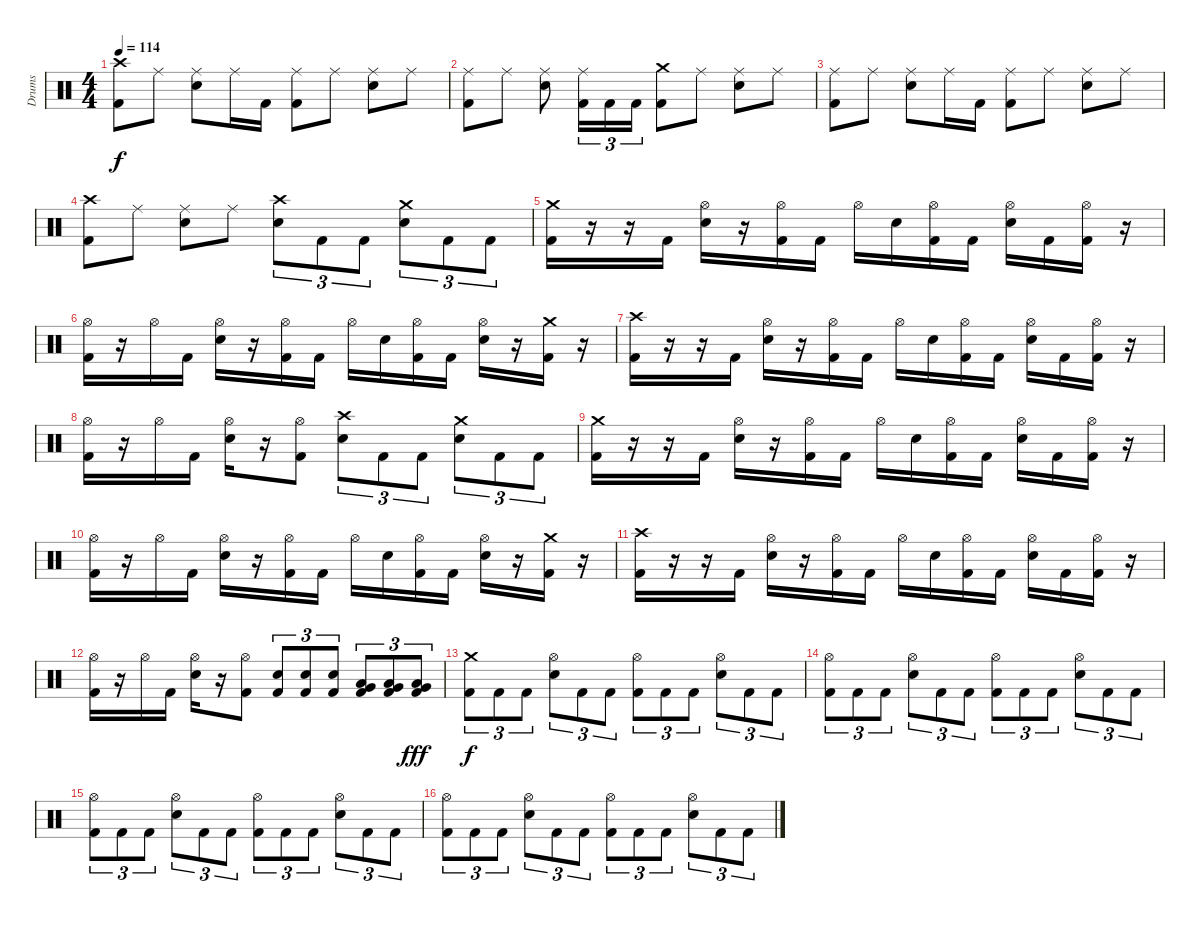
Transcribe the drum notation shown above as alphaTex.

\track ("Drums" "Drums") {instrument percussion}
\staff {score}
\articulation defaults
\ts (4 4)
\tempo 114
\clef neutral
\ks c
("Crash high (hit)" "Kick (hit) 2").8{dy f} "Ride (middle)".8 ("Ride (middle)" "Snare (hit) 2").8 "Ride (middle)".16 "Kick (hit) 2".16 ("Ride (middle)" "Kick (hit) 2").8 "Ride (middle)".8 ("Ride (middle)" "Snare (hit) 2").8 "Ride (middle)".8 |
("Ride (middle)" "Kick (hit) 2").8 "Ride (middle)".8 ("Ride (middle)" "Snare (hit) 2").8 ("Ride (middle)" "Kick (hit) 2").16{tu (3 2)} "Kick (hit) 2".16{tu (3 2)} "Kick (hit) 2".16{tu (3 2)} ("Crash medium (hit)" "Kick (hit) 2").8 "Ride (middle)".8 ("Ride (middle)" "Snare (hit) 2").8 "Ride (middle)".8 |
("Ride (middle)" "Kick (hit) 2").8 "Ride (middle)".8 ("Ride (middle)" "Snare (hit) 2").8 "Ride (middle)".16 "Kick (hit) 2".16 ("Ride (middle)" "Kick (hit) 2").8 "Ride (middle)".8 ("Ride (middle)" "Snare (hit) 2").8 "Ride (middle)".8 |
("Crash high (hit)" "Kick (hit) 2").8 "Ride (middle)".8 ("Ride (middle)" "Snare (hit) 2").8 "Ride (middle)".8 ("Crash high (hit)" "Snare (hit) 2").8{tu (3 2)} "Kick (hit) 2".8{tu (3 2)} "Kick (hit) 2".8{tu (3 2)} ("Crash medium (hit)" "Snare (hit) 2").8{tu (3 2)} "Kick (hit) 2".8{tu (3 2)} "Kick (hit) 2".8{tu (3 2)} |
("Crash medium (hit)" "Kick (hit) 2").16 r.16 r.16 "Kick (hit) 2".16 ("Hi-Hat (open)" "Snare (hit) 2").16 r.16 ("Hi-Hat (open)" "Kick (hit) 2").16 "Kick (hit) 2".16 "Hi-Hat (open)".16 "Snare (hit) 2".16 ("Hi-Hat (open)" "Kick (hit) 2").16 "Kick (hit) 2".16 ("Hi-Hat (open)" "Snare (hit) 2").16 "Kick (hit) 2".16 ("Hi-Hat (open)" "Kick (hit) 2").16 r.16 |
("Hi-Hat (open)" "Kick (hit) 2").16 r.16 "Hi-Hat (open)".16 "Kick (hit) 2".16 ("Hi-Hat (open)" "Snare (hit) 2").16 r.16 ("Hi-Hat (open)" "Kick (hit) 2").16 "Kick (hit) 2".16 "Hi-Hat (open)".16 "Snare (hit) 2".16 ("Hi-Hat (open)" "Kick (hit) 2").16 "Kick (hit) 2".16 ("Hi-Hat (open)" "Snare (hit) 2").16 r.16 ("Crash medium (hit)" "Kick (hit) 2").16 r.16 |
("Crash high (hit)" "Kick (hit) 2").16 r.16 r.16 "Kick (hit) 2".16 ("Hi-Hat (open)" "Snare (hit) 2").16 r.16 ("Hi-Hat (open)" "Kick (hit) 2").16 "Kick (hit) 2".16 "Hi-Hat (open)".16 "Snare (hit) 2".16 ("Hi-Hat (open)" "Kick (hit) 2").16 "Kick (hit) 2".16 ("Hi-Hat (open)" "Snare (hit) 2").16 "Kick (hit) 2".16 ("Hi-Hat (open)" "Kick (hit) 2").16 r.16 |
("Hi-Hat (open)" "Kick (hit) 2").16 r.16 "Hi-Hat (open)".16 "Kick (hit) 2".16 ("Hi-Hat (open)" "Snare (hit) 2").16 r.16 ("Hi-Hat (open)" "Kick (hit) 2").8 ("Crash high (hit)" "Snare (hit) 2").8{tu (3 2)} "Kick (hit) 2".8{tu (3 2)} "Kick (hit) 2".8{tu (3 2)} ("Crash medium (hit)" "Snare (hit) 2").8{tu (3 2)} "Kick (hit) 2".8{tu (3 2)} "Kick (hit) 2".8{tu (3 2)} |
("Crash medium (hit)" "Kick (hit) 2").16 r.16 r.16 "Kick (hit) 2".16 ("Hi-Hat (open)" "Snare (hit) 2").16 r.16 ("Hi-Hat (open)" "Kick (hit) 2").16 "Kick (hit) 2".16 "Hi-Hat (open)".16 "Snare (hit) 2".16 ("Hi-Hat (open)" "Kick (hit) 2").16 "Kick (hit) 2".16 ("Hi-Hat (open)" "Snare (hit) 2").16 "Kick (hit) 2".16 ("Hi-Hat (open)" "Kick (hit) 2").16 r.16 |
("Hi-Hat (open)" "Kick (hit) 2").16 r.16 "Hi-Hat (open)".16 "Kick (hit) 2".16 ("Hi-Hat (open)" "Snare (hit) 2").16 r.16 ("Hi-Hat (open)" "Kick (hit) 2").16 "Kick (hit) 2".16 "Hi-Hat (open)".16 "Snare (hit) 2".16 ("Hi-Hat (open)" "Kick (hit) 2").16 "Kick (hit) 2".16 ("Hi-Hat (open)" "Snare (hit) 2").16 r.16 ("Crash medium (hit)" "Kick (hit) 2").16 r.16 |
("Crash high (hit)" "Kick (hit) 2").16 r.16 r.16 "Kick (hit) 2".16 ("Hi-Hat (open)" "Snare (hit) 2").16 r.16 ("Hi-Hat (open)" "Kick (hit) 2").16 "Kick (hit) 2".16 "Hi-Hat (open)".16 "Snare (hit) 2".16 ("Hi-Hat (open)" "Kick (hit) 2").16 "Kick (hit) 2".16 ("Hi-Hat (open)" "Snare (hit) 2").16 "Kick (hit) 2".16 ("Hi-Hat (open)" "Kick (hit) 2").16 r.16 |
("Hi-Hat (open)" "Kick (hit) 2").16 r.16 "Hi-Hat (open)".16 "Kick (hit) 2".16 ("Hi-Hat (open)" "Snare (hit) 2").16 r.16 ("Hi-Hat (open)" "Kick (hit) 2").8 ("Snare (hit) 2" "Kick (hit) 2").8{tu (3 2)} ("Snare (hit) 2" "Kick (hit) 2").8{tu (3 2)} ("Snare (hit) 2" "Kick (hit) 2").8{tu (3 2)} ("Very Low Tom (hit)" "Low Tom (hit)" "Kick (hit) 2").8{tu (3 2)} ("Very Low Tom (hit)" "Low Tom (hit)" "Kick (hit) 2").8{tu (3 2)} ("Very Low Tom (hit)" "Low Tom (hit)" "Kick (hit) 2").8{tu (3 2) dy fff} |
("Crash medium (hit)" "Kick (hit) 2").8{tu (3 2) dy f} "Kick (hit) 2".8{tu (3 2)} "Kick (hit) 2".8{tu (3 2)} ("Hi-Hat (open)" "Snare (hit) 2").8{tu (3 2)} "Kick (hit) 2".8{tu (3 2)} "Kick (hit) 2".8{tu (3 2)} ("Hi-Hat (open)" "Kick (hit) 2").8{tu (3 2)} "Kick (hit) 2".8{tu (3 2)} "Kick (hit) 2".8{tu (3 2)} ("Hi-Hat (open)" "Snare (hit) 2").8{tu (3 2)} "Kick (hit) 2".8{tu (3 2)} "Kick (hit) 2".8{tu (3 2)} |
("Hi-Hat (open)" "Kick (hit) 2").8{tu (3 2)} "Kick (hit) 2".8{tu (3 2)} "Kick (hit) 2".8{tu (3 2)} ("Hi-Hat (open)" "Snare (hit) 2").8{tu (3 2)} "Kick (hit) 2".8{tu (3 2)} "Kick (hit) 2".8{tu (3 2)} ("Hi-Hat (open)" "Kick (hit) 2").8{tu (3 2)} "Kick (hit) 2".8{tu (3 2)} "Kick (hit) 2".8{tu (3 2)} ("Hi-Hat (open)" "Snare (hit) 2").8{tu (3 2)} "Kick (hit) 2".8{tu (3 2)} "Kick (hit) 2".8{tu (3 2)} |
("Hi-Hat (open)" "Kick (hit) 2").8{tu (3 2)} "Kick (hit) 2".8{tu (3 2)} "Kick (hit) 2".8{tu (3 2)} ("Hi-Hat (open)" "Snare (hit) 2").8{tu (3 2)} "Kick (hit) 2".8{tu (3 2)} "Kick (hit) 2".8{tu (3 2)} ("Hi-Hat (open)" "Kick (hit) 2").8{tu (3 2)} "Kick (hit) 2".8{tu (3 2)} "Kick (hit) 2".8{tu (3 2)} ("Hi-Hat (open)" "Snare (hit) 2").8{tu (3 2)} "Kick (hit) 2".8{tu (3 2)} "Kick (hit) 2".8{tu (3 2)} |
("Hi-Hat (open)" "Kick (hit) 2").8{tu (3 2)} "Kick (hit) 2".8{tu (3 2)} "Kick (hit) 2".8{tu (3 2)} ("Hi-Hat (open)" "Snare (hit) 2").8{tu (3 2)} "Kick (hit) 2".8{tu (3 2)} "Kick (hit) 2".8{tu (3 2)} ("Hi-Hat (open)" "Kick (hit) 2").8{tu (3 2)} "Kick (hit) 2".8{tu (3 2)} "Kick (hit) 2".8{tu (3 2)} ("Hi-Hat (open)" "Snare (hit) 2").8{tu (3 2)} "Kick (hit) 2".8{tu (3 2)} "Kick (hit) 2".8{tu (3 2)}
